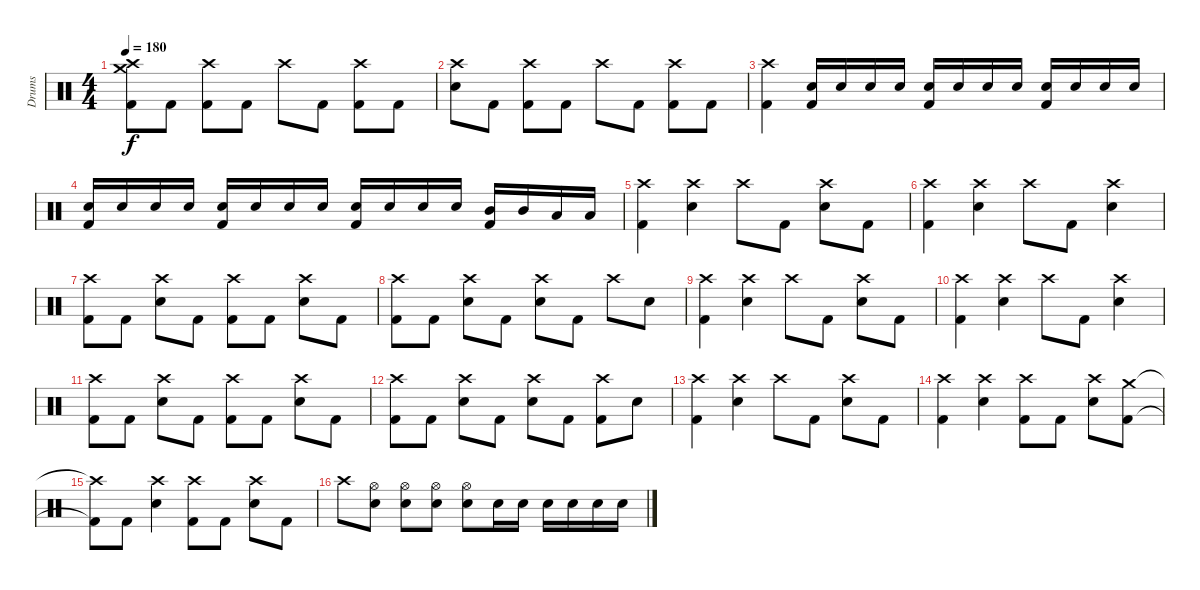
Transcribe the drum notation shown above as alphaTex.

\track ("Drums" "Drums") {instrument percussion}
\staff {score}
\articulation defaults
\ts (4 4)
\tempo 180
\clef neutral
\ks c
("Crash high (hit)" "Crash medium (hit)" "Kick (hit) 2").8{dy f} "Kick (hit) 2".8 ("Crash high (hit)" "Kick (hit) 2").8 "Kick (hit) 2".8 "Crash high (hit)".8 "Kick (hit) 2".8 ("Crash high (hit)" "Kick (hit) 2").8 "Kick (hit) 2".8 |
("Crash high (hit)" "Electric Snare (hit)").8 "Kick (hit) 2".8 ("Crash high (hit)" "Kick (hit) 2").8 "Kick (hit) 2".8 "Crash high (hit)".8 "Kick (hit) 2".8 ("Crash high (hit)" "Kick (hit) 2").8 "Kick (hit) 2".8 |
("Crash high (hit)" "Kick (hit) 2").4 ("Electric Snare (hit)" "Kick (hit) 2").16 "Electric Snare (hit)".16 "Electric Snare (hit)".16 "Electric Snare (hit)".16 ("Electric Snare (hit)" "Kick (hit) 2").16 "Electric Snare (hit)".16 "Electric Snare (hit)".16 "Electric Snare (hit)".16 ("Electric Snare (hit)" "Kick (hit) 2").16 "Electric Snare (hit)".16 "Electric Snare (hit)".16 "Electric Snare (hit)".16 |
("Electric Snare (hit)" "Kick (hit) 2").16 "Electric Snare (hit)".16 "Electric Snare (hit)".16 "Electric Snare (hit)".16 ("Electric Snare (hit)" "Kick (hit) 2").16 "Electric Snare (hit)".16 "Electric Snare (hit)".16 "Electric Snare (hit)".16 ("Electric Snare (hit)" "Kick (hit) 2").16 "Electric Snare (hit)".16 "Electric Snare (hit)".16 "Electric Snare (hit)".16 ("Mid Tom (hit)" "Kick (hit) 2").16 "Mid Tom (hit)".16 "Low Tom (hit)".16 "Low Tom (hit)".16 |
("Crash high (hit)" "Kick (hit) 2").4 ("Crash high (hit)" "Electric Snare (hit)").4 "Crash high (hit)".8 "Kick (hit) 2".8 ("Crash high (hit)" "Electric Snare (hit)").8 "Kick (hit) 2".8 |
("Crash high (hit)" "Kick (hit) 2").4 ("Crash high (hit)" "Electric Snare (hit)").4 "Crash high (hit)".8 "Kick (hit) 2".8 ("Crash high (hit)" "Electric Snare (hit)").4 |
("Crash high (hit)" "Kick (hit) 2").8 "Kick (hit) 2".8 ("Crash high (hit)" "Electric Snare (hit)").8 "Kick (hit) 2".8 ("Crash high (hit)" "Kick (hit) 2").8 "Kick (hit) 2".8 ("Crash high (hit)" "Electric Snare (hit)").8 "Kick (hit) 2".8 |
("Crash high (hit)" "Kick (hit) 2").8 "Kick (hit) 2".8 ("Crash high (hit)" "Electric Snare (hit)").8 "Kick (hit) 2".8 ("Crash high (hit)" "Electric Snare (hit)").8 "Kick (hit) 2".8 "Crash high (hit)".8 "Electric Snare (hit)".8 |
("Crash high (hit)" "Kick (hit) 2").4 ("Crash high (hit)" "Electric Snare (hit)").4 "Crash high (hit)".8 "Kick (hit) 2".8 ("Crash high (hit)" "Electric Snare (hit)").8 "Kick (hit) 2".8 |
("Crash high (hit)" "Kick (hit) 2").4 ("Crash high (hit)" "Electric Snare (hit)").4 "Crash high (hit)".8 "Kick (hit) 2".8 ("Crash high (hit)" "Electric Snare (hit)").4 |
("Crash high (hit)" "Kick (hit) 2").8 "Kick (hit) 2".8 ("Crash high (hit)" "Electric Snare (hit)").8 "Kick (hit) 2".8 ("Crash high (hit)" "Kick (hit) 2").8 "Kick (hit) 2".8 ("Crash high (hit)" "Electric Snare (hit)").8 "Kick (hit) 2".8 |
("Crash high (hit)" "Kick (hit) 2").8 "Kick (hit) 2".8 ("Crash high (hit)" "Electric Snare (hit)").8 "Kick (hit) 2".8 ("Crash high (hit)" "Electric Snare (hit)").8 "Kick (hit) 2".8 ("Crash high (hit)" "Kick (hit) 2").8 "Electric Snare (hit)".8 |
("Crash high (hit)" "Kick (hit) 2").4 ("Crash high (hit)" "Electric Snare (hit)").4 "Crash high (hit)".8 "Kick (hit) 2".8 ("Crash high (hit)" "Electric Snare (hit)").8 "Kick (hit) 2".8 |
("Crash high (hit)" "Kick (hit) 2").4 ("Crash high (hit)" "Electric Snare (hit)").4 ("Crash high (hit)" "Kick (hit) 2").8 "Kick (hit) 2".8 ("Crash high (hit)" "Electric Snare (hit)").8 ("Crash medium (hit)" "Kick (hit) 2").8 |
("Crash high (hit)"{t} "Kick (hit) 2"{t}).8 "Kick (hit) 2".8 ("Crash high (hit)" "Electric Snare (hit)").4 ("Crash high (hit)" "Kick (hit) 2").8 "Kick (hit) 2".8 ("Crash high (hit)" "Electric Snare (hit)").8 "Kick (hit) 2".8 |
"Crash high (hit)".8 ("Hi-Hat (open)" "Electric Snare (hit)").8 ("Hi-Hat (open)" "Electric Snare (hit)").8 ("Hi-Hat (open)" "Electric Snare (hit)").8 ("Hi-Hat (open)" "Electric Snare (hit)").8 "Electric Snare (hit)".16 "Electric Snare (hit)".16 "Electric Snare (hit)".16 "Electric Snare (hit)".16 "Electric Snare (hit)".16 "Electric Snare (hit)".16
